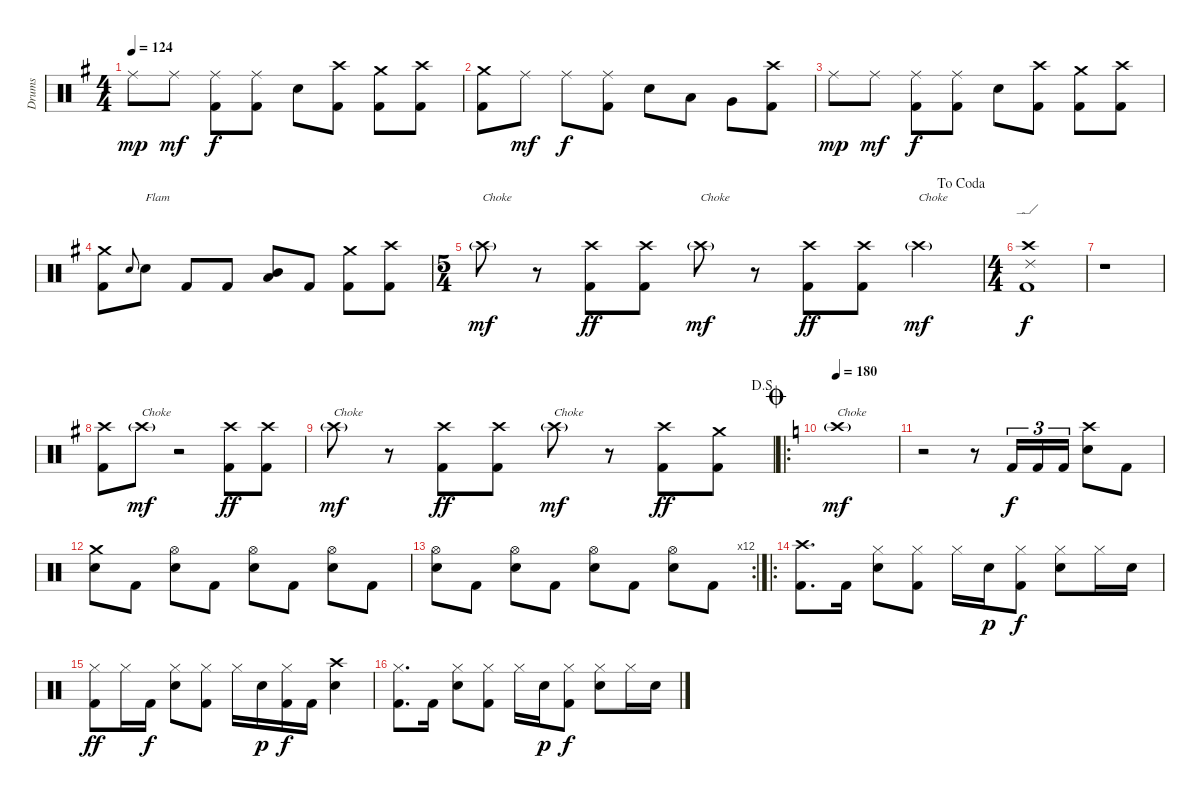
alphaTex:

\track ("Drums" "Drums") {instrument percussion}
\staff {score}
\articulation defaults
\ts (4 4)
\tempo 124
\clef neutral
\ks g "Ride (middle)".8{dy mp} "Ride (middle)".8{dy mf}
("Ride (middle)" "Kick (hit) 2").8{dy f} ("Ride (middle)" "Kick (hit) 2").8 "Snare (hit) 2".8 ("Crash high (hit)" "Kick (hit) 2").8 ("Crash medium (hit)" "Kick (hit) 2").8 ("Crash high (hit)" "Kick (hit) 2").8 |
("Crash medium (hit)" "Kick (hit) 2").8 "Ride (middle)".8{dy mf} "Ride (middle)".8{dy f} ("Ride (middle)" "Kick (hit) 2").8 "Snare (hit) 2".8 "Low Tom (hit)".8 "Very Low Tom (hit)".8 ("Crash high (hit)" "Kick (hit) 2").8 |
"Ride (middle)".8{dy mp} "Ride (middle)".8{dy mf} ("Ride (middle)" "Kick (hit) 2").8{dy f} ("Ride (middle)" "Kick (hit) 2").8 "Snare (hit) 2".8 ("Crash high (hit)" "Kick (hit) 2").8 ("Crash medium (hit)" "Kick (hit) 2").8 ("Crash high (hit)" "Kick (hit) 2").8 |
("Crash medium (hit)" "Kick (hit) 2").8 "Snare (hit) 2".8{gr onbeat} "Snare (hit) 2".8{txt "Flam"} "Kick (hit) 2".8 "Kick (hit) 2".8 ("Mid Tom (hit)" "Low Tom (hit)").8 "Kick (hit) 2".8 ("Crash medium (hit)" "Kick (hit) 2").8 ("Crash high (hit)" "Kick (hit) 2").8 |
\ts (5 4)
\jump dacoda "Crash high (hit)"{g}.8{txt "Choke" dy mf volume 0}
r.8 ("Crash high (hit)" "Kick (hit) 2").8{dy ff volume 16} ("Crash high (hit)" "Kick (hit) 2").8 "Crash high (hit)"{g}.8{txt "Choke" dy mf volume 0} r.8 ("Crash high (hit)" "Kick (hit) 2").8{dy ff volume 16} ("Crash high (hit)" "Kick (hit) 2").8 "Crash high (hit)"{g}.4{txt "Choke" dy mf volume 0} |
\ts (4 4)
("Crash high (hit)" "Ride (edge) 2" "Kick (hit) 2").1{dy f volume 16} |
r.1 |
("Crash high (hit)" "Kick (hit) 2").8 "Crash high (hit)"{g}.8{txt "Choke" dy mf volume 0} r.2 ("Crash high (hit)" "Kick (hit) 2").8{dy ff volume 16} ("Crash high (hit)" "Kick (hit) 2").8 |
\jump dalsegno "Crash high (hit)"{g}.8{txt "Choke" dy mf volume 0}
r.8 ("Crash high (hit)" "Kick (hit) 2").8{dy ff volume 16} ("Crash high (hit)" "Kick (hit) 2").8 "Crash high (hit)"{g}.8{txt "Choke" dy mf volume 0} r.8 ("Crash high (hit)" "Kick (hit) 2").8{dy ff volume 16} ("Crash medium (hit)" "Kick (hit) 2").8 |
\ro
\jump coda
\tempo 180
\ks c "Crash high (hit)"{g}.1{txt "Choke" dy mf volume 0}
|
r.2 r.8 "Kick (hit) 2".16{tu (3 2) dy f volume 16} "Kick (hit) 2".16{tu (3 2)} "Kick (hit) 2".16{tu (3 2)} ("Crash high (hit)" "Snare (hit) 2").8 "Kick (hit) 2".8 |
("Crash medium (hit)" "Snare (hit) 2").8 "Kick (hit) 2".8 ("Hi-Hat (open)" "Snare (hit) 2").8 "Kick (hit) 2".8 ("Hi-Hat (open)" "Snare (hit) 2").8 "Kick (hit) 2".8 ("Hi-Hat (open)" "Snare (hit) 2").8 "Kick (hit) 2".8 |
\rc 12
("Hi-Hat (open)" "Snare (hit) 2").8 "Kick (hit) 2".8 ("Hi-Hat (open)" "Snare (hit) 2").8 "Kick (hit) 2".8 ("Hi-Hat (open)" "Snare (hit) 2").8 "Kick (hit) 2".8 ("Hi-Hat (open)" "Snare (hit) 2").8 "Kick (hit) 2".8 |
\ro
("Crash high (hit)" "Kick (hit) 2").8{d} "Kick (hit) 2".16 ("Hi-Hat (closed)" "Snare (hit) 2").8 ("Hi-Hat (closed)" "Kick (hit) 2").8 "Hi-Hat (closed)".16 "Snare (hit) 2".16{dy p} ("Hi-Hat (closed)" "Kick (hit) 2").8{dy f} ("Hi-Hat (closed)" "Snare (hit) 2").8 "Hi-Hat (closed)".16 "Snare (hit) 2".16 |
("Hi-Hat (closed)" "Kick (hit) 2").8{dy ff} "Hi-Hat (closed)".16 "Kick (hit) 2".16{dy f} ("Hi-Hat (closed)" "Snare (hit) 2").8 ("Hi-Hat (closed)" "Kick (hit) 2").8 "Hi-Hat (closed)".16 "Snare (hit) 2".16{dy p} ("Hi-Hat (closed)" "Kick (hit) 2").16{dy f} "Kick (hit) 2".16 ("Crash high (hit)" "Snare (hit) 2").4 |
("Hi-Hat (closed)" "Kick (hit) 2").8{d} "Kick (hit) 2".16 ("Hi-Hat (closed)" "Snare (hit) 2").8 ("Hi-Hat (closed)" "Kick (hit) 2").8 "Hi-Hat (closed)".16 "Snare (hit) 2".16{dy p} ("Hi-Hat (closed)" "Kick (hit) 2").8{dy f} ("Hi-Hat (closed)" "Snare (hit) 2").8 "Hi-Hat (closed)".16 "Snare (hit) 2".16
